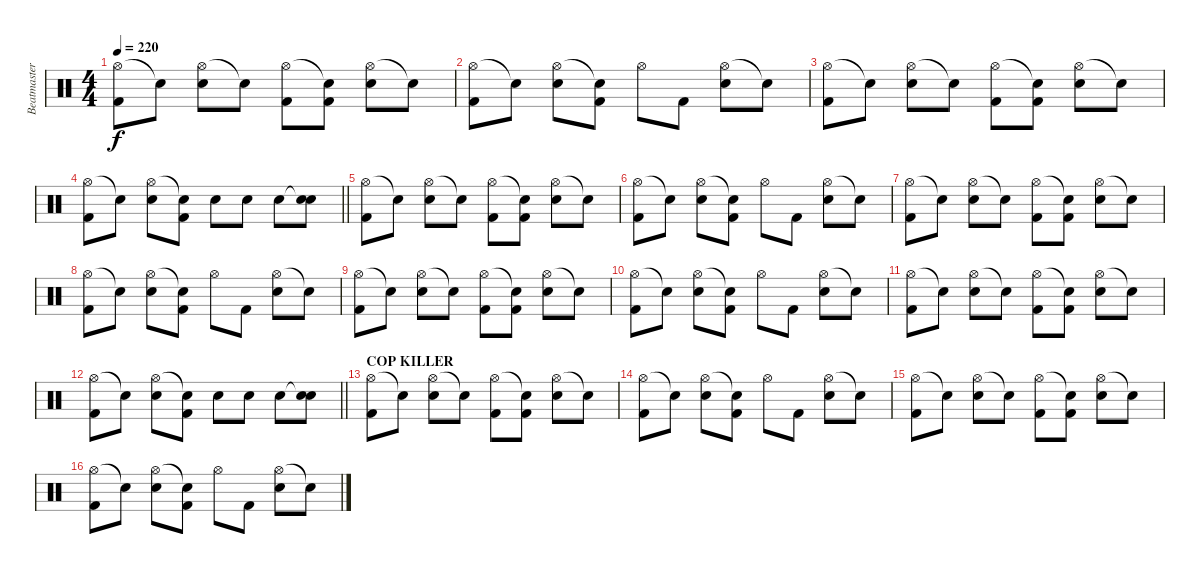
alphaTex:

\track ("Beatmaster V" "Beatmaster") {instrument percussion}
\staff {score}
\articulation defaults
\ts (4 4)
\tempo 220
\clef neutral
\ks c
("Hi-Hat (open)" "Kick (hit) 2").8{dy f} "Snare (hit)"{t}.8 ("Hi-Hat (open)" "Snare (hit) 2").8 "Snare (hit)"{t}.8 ("Hi-Hat (open)" "Kick (hit) 2").8 ("Snare (hit)"{t} "Kick (hit) 2").8 ("Hi-Hat (open)" "Snare (hit) 2").8 "Snare (hit)"{t}.8 |
("Hi-Hat (open)" "Kick (hit) 2").8 "Snare (hit)"{t}.8 ("Hi-Hat (open)" "Snare (hit) 2").8 ("Snare (hit)"{t} "Kick (hit) 2").8 "Hi-Hat (open)".8 "Kick (hit) 2".8 ("Hi-Hat (open)" "Snare (hit) 2").8 "Snare (hit)"{t}.8 |
("Hi-Hat (open)" "Kick (hit) 2").8 "Snare (hit)"{t}.8 ("Hi-Hat (open)" "Snare (hit) 2").8 "Snare (hit)"{t}.8 ("Hi-Hat (open)" "Kick (hit) 2").8 ("Snare (hit)"{t} "Kick (hit) 2").8 ("Hi-Hat (open)" "Snare (hit) 2").8 "Snare (hit)"{t}.8 |
\barLineRight lightlight
("Hi-Hat (open)" "Kick (hit) 2").8 "Snare (hit)"{t}.8 ("Hi-Hat (open)" "Snare (hit) 2").8 ("Snare (hit)"{t} "Kick (hit) 2").8 "Snare (hit) 2".8 "Snare (hit) 2".8 "Snare (hit) 2".8 ("Snare (hit)"{t} "Snare (hit) 2").8 |
("Hi-Hat (open)" "Kick (hit) 2").8 "Snare (hit)"{t}.8 ("Hi-Hat (open)" "Snare (hit) 2").8 "Snare (hit)"{t}.8 ("Hi-Hat (open)" "Kick (hit) 2").8 ("Snare (hit)"{t} "Kick (hit) 2").8 ("Hi-Hat (open)" "Snare (hit) 2").8 "Snare (hit)"{t}.8 |
("Hi-Hat (open)" "Kick (hit) 2").8 "Snare (hit)"{t}.8 ("Hi-Hat (open)" "Snare (hit) 2").8 ("Snare (hit)"{t} "Kick (hit) 2").8 "Hi-Hat (open)".8 "Kick (hit) 2".8 ("Hi-Hat (open)" "Snare (hit) 2").8 "Snare (hit)"{t}.8 |
("Hi-Hat (open)" "Kick (hit) 2").8 "Snare (hit)"{t}.8 ("Hi-Hat (open)" "Snare (hit) 2").8 "Snare (hit)"{t}.8 ("Hi-Hat (open)" "Kick (hit) 2").8 ("Snare (hit)"{t} "Kick (hit) 2").8 ("Hi-Hat (open)" "Snare (hit) 2").8 "Snare (hit)"{t}.8 |
("Hi-Hat (open)" "Kick (hit) 2").8 "Snare (hit)"{t}.8 ("Hi-Hat (open)" "Snare (hit) 2").8 ("Snare (hit)"{t} "Kick (hit) 2").8 "Hi-Hat (open)".8 "Kick (hit) 2".8 ("Hi-Hat (open)" "Snare (hit) 2").8 "Snare (hit)"{t}.8 |
("Hi-Hat (open)" "Kick (hit) 2").8 "Snare (hit)"{t}.8 ("Hi-Hat (open)" "Snare (hit) 2").8 "Snare (hit)"{t}.8 ("Hi-Hat (open)" "Kick (hit) 2").8 ("Snare (hit)"{t} "Kick (hit) 2").8 ("Hi-Hat (open)" "Snare (hit) 2").8 "Snare (hit)"{t}.8 |
("Hi-Hat (open)" "Kick (hit) 2").8 "Snare (hit)"{t}.8 ("Hi-Hat (open)" "Snare (hit) 2").8 ("Snare (hit)"{t} "Kick (hit) 2").8 "Hi-Hat (open)".8 "Kick (hit) 2".8 ("Hi-Hat (open)" "Snare (hit) 2").8 "Snare (hit)"{t}.8 |
("Hi-Hat (open)" "Kick (hit) 2").8 "Snare (hit)"{t}.8 ("Hi-Hat (open)" "Snare (hit) 2").8 "Snare (hit)"{t}.8 ("Hi-Hat (open)" "Kick (hit) 2").8 ("Snare (hit)"{t} "Kick (hit) 2").8 ("Hi-Hat (open)" "Snare (hit) 2").8 "Snare (hit)"{t}.8 |
\barLineRight lightlight
("Hi-Hat (open)" "Kick (hit) 2").8 "Snare (hit)"{t}.8 ("Hi-Hat (open)" "Snare (hit) 2").8 ("Snare (hit)"{t} "Kick (hit) 2").8 "Snare (hit) 2".8 "Snare (hit) 2".8 "Snare (hit) 2".8 ("Snare (hit)"{t} "Snare (hit) 2").8 |
\section ("" "COP KILLER")
("Hi-Hat (open)" "Kick (hit) 2").8 "Snare (hit)"{t}.8 ("Hi-Hat (open)" "Snare (hit) 2").8 "Snare (hit)"{t}.8 ("Hi-Hat (open)" "Kick (hit) 2").8 ("Snare (hit)"{t} "Kick (hit) 2").8 ("Hi-Hat (open)" "Snare (hit) 2").8 "Snare (hit)"{t}.8 |
("Hi-Hat (open)" "Kick (hit) 2").8 "Snare (hit)"{t}.8 ("Hi-Hat (open)" "Snare (hit) 2").8 ("Snare (hit)"{t} "Kick (hit) 2").8 "Hi-Hat (open)".8 "Kick (hit) 2".8 ("Hi-Hat (open)" "Snare (hit) 2").8 "Snare (hit)"{t}.8 |
("Hi-Hat (open)" "Kick (hit) 2").8 "Snare (hit)"{t}.8 ("Hi-Hat (open)" "Snare (hit) 2").8 "Snare (hit)"{t}.8 ("Hi-Hat (open)" "Kick (hit) 2").8 ("Snare (hit)"{t} "Kick (hit) 2").8 ("Hi-Hat (open)" "Snare (hit) 2").8 "Snare (hit)"{t}.8 |
("Hi-Hat (open)" "Kick (hit) 2").8 "Snare (hit)"{t}.8 ("Hi-Hat (open)" "Snare (hit) 2").8 ("Snare (hit)"{t} "Kick (hit) 2").8 "Hi-Hat (open)".8 "Kick (hit) 2".8 ("Hi-Hat (open)" "Snare (hit) 2").8 "Snare (hit)"{t}.8
